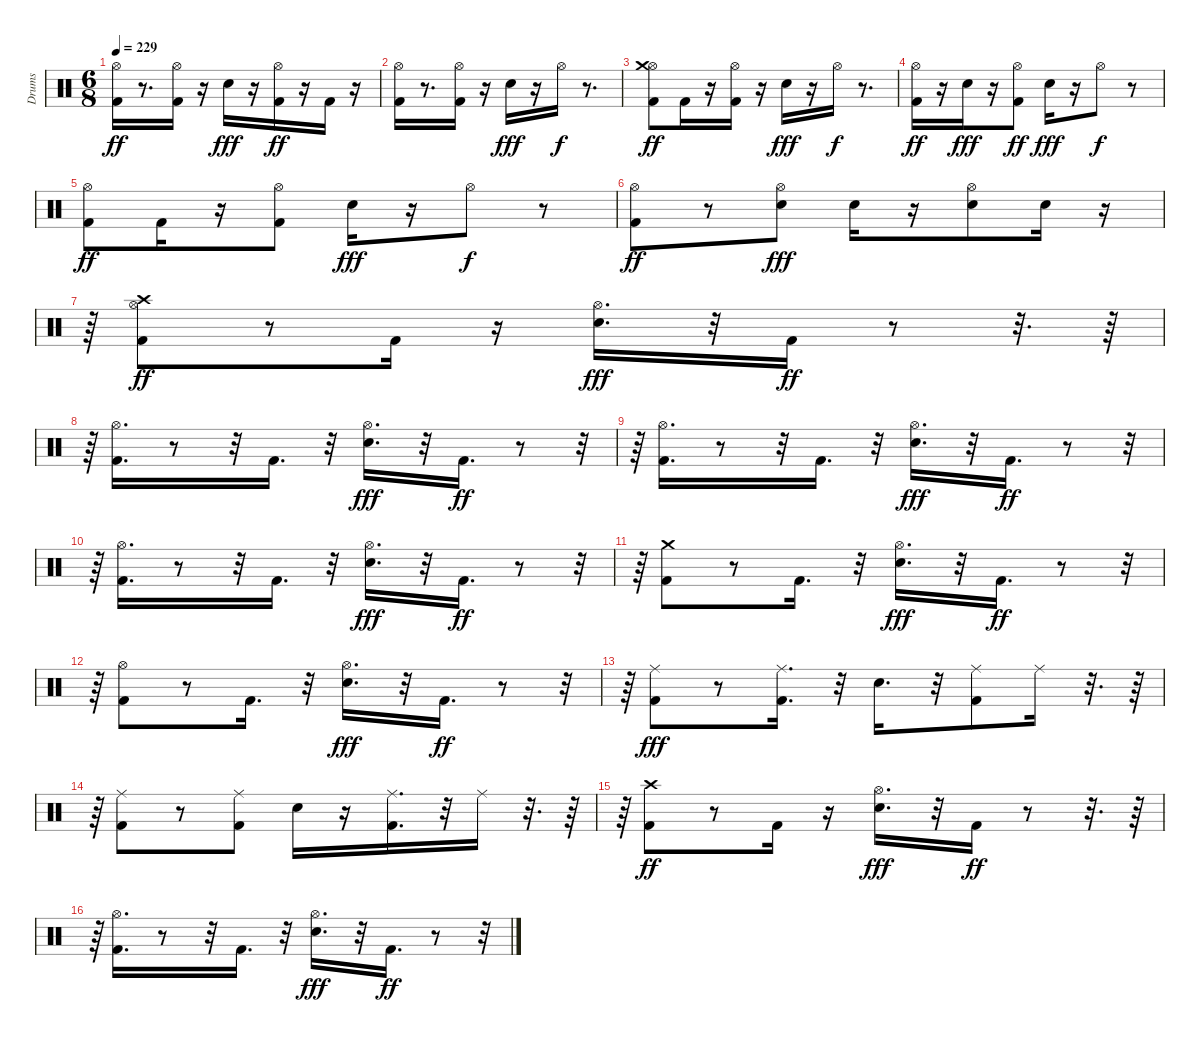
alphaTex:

\track ("Drums" "Drums") {instrument percussion}
\staff {score}
\articulation defaults
\ts (6 8)
\tempo 229
\clef neutral
\ks c
("Kick (hit) 2" "Hi-Hat (open)").16{dy ff} r.8{d} ("Kick (hit) 2" "Hi-Hat (open)").16 r.16 "Snare (hit) 2".16{dy fff} r.16 ("Kick (hit) 2" "Hi-Hat (open)").16{dy ff} r.16 "Kick (hit) 2".16 r.16 |
("Kick (hit) 2" "Hi-Hat (open)").16 r.8{d} ("Kick (hit) 2" "Hi-Hat (open)").16 r.16 "Snare (hit) 2".16{dy fff} r.16 "Hi-Hat (open)".16{dy f} r.8{d} |
("Kick (hit) 2" "Hi-Hat (open)" "Crash medium (hit)").8{dy ff} "Kick (hit) 2".16 r.16 ("Kick (hit) 2" "Hi-Hat (open)").16 r.16 "Snare (hit) 2".16{dy fff} r.16 "Hi-Hat (open)".16{dy f} r.8{d} |
("Kick (hit) 2" "Hi-Hat (open)").16{dy ff} r.16 "Snare (hit) 2".16{dy fff} r.16 ("Kick (hit) 2" "Hi-Hat (open)").8{dy ff} "Snare (hit) 2".16{dy fff} r.16 "Hi-Hat (open)".8{dy f} r.8 |
("Kick (hit) 2" "Hi-Hat (open)").8{dy ff} "Kick (hit) 2".16 r.16 ("Kick (hit) 2" "Hi-Hat (open)").8 "Snare (hit) 2".16{dy fff} r.16 "Hi-Hat (open)".8{dy f} r.8 |
("Kick (hit) 2" "Hi-Hat (open)").8{dy ff} r.8 ("Snare (hit) 2" "Hi-Hat (open)").8{dy fff} "Snare (hit) 2".16 r.16 ("Snare (hit) 2" "Hi-Hat (open)").8 "Snare (hit) 2".16 r.16 |
r.64 ("Kick (hit) 2" "Hi-Hat (open)" "Crash high (hit)").8{dy ff} r.8 "Kick (hit) 2".16 r.16 ("Snare (hit) 2" "Hi-Hat (open)").16{d dy fff} r.32 "Kick (hit) 2".16{dy ff} r.8 r.32{d} r.64 |
r.64 ("Kick (hit) 2" "Hi-Hat (open)").16{d} r.8 r.32 "Kick (hit) 2".16{d} r.32 ("Snare (hit) 2" "Hi-Hat (open)").16{d dy fff} r.32 "Kick (hit) 2".16{d dy ff} r.8 r.32{tu (5 4)} |
r.64 ("Kick (hit) 2" "Hi-Hat (open)").16{d} r.8 r.32 "Kick (hit) 2".16{d} r.32 ("Snare (hit) 2" "Hi-Hat (open)").16{d dy fff} r.32 "Kick (hit) 2".16{d dy ff} r.8 r.32{tu (5 4)} |
r.64 ("Kick (hit) 2" "Hi-Hat (open)").16{d} r.8 r.32 "Kick (hit) 2".16{d} r.32 ("Snare (hit) 2" "Hi-Hat (open)").16{d dy fff} r.32 "Kick (hit) 2".16{d dy ff} r.8 r.32{tu (5 4)} |
r.64 ("Kick (hit) 2" "Crash medium (hit)").8 r.8 "Kick (hit) 2".16{d} r.32 ("Snare (hit) 2" "Hi-Hat (open)").16{d dy fff} r.32 "Kick (hit) 2".16{d dy ff} r.8 r.32{tu (5 4)} |
r.64 ("Kick (hit) 2" "Hi-Hat (open)").8 r.8 "Kick (hit) 2".16{d} r.32 ("Snare (hit) 2" "Hi-Hat (open)").16{d dy fff} r.32 "Kick (hit) 2".16{d dy ff} r.8 r.32{tu (5 4)} |
r.64 ("Kick (hit) 2" "Ride (middle)").8{dy fff} r.8 ("Kick (hit) 2" "Ride (middle)").16{d} r.32 "Snare (hit) 2".16{d} r.32 ("Kick (hit) 2" "Ride (middle)").8 "Ride (middle)".16 r.32{d} r.64 |
r.64 ("Kick (hit) 2" "Ride (middle)").8 r.8 ("Kick (hit) 2" "Ride (middle)").8 "Snare (hit) 2".16 r.16 ("Kick (hit) 2" "Ride (middle)").16{d} r.32 "Ride (middle)".16 r.32{d} r.64 |
r.64 ("Kick (hit) 2" "Crash high (hit)").8{dy ff} r.8 "Kick (hit) 2".16 r.16 ("Snare (hit) 2" "Hi-Hat (open)").16{d dy fff} r.32 "Kick (hit) 2".16{dy ff} r.8 r.32{d} r.64 |
r.64 ("Kick (hit) 2" "Hi-Hat (open)").16{d} r.8 r.32 "Kick (hit) 2".16{d} r.32 ("Snare (hit) 2" "Hi-Hat (open)").16{d dy fff} r.32 "Kick (hit) 2".16{d dy ff} r.8 r.32{tu (5 4)}
